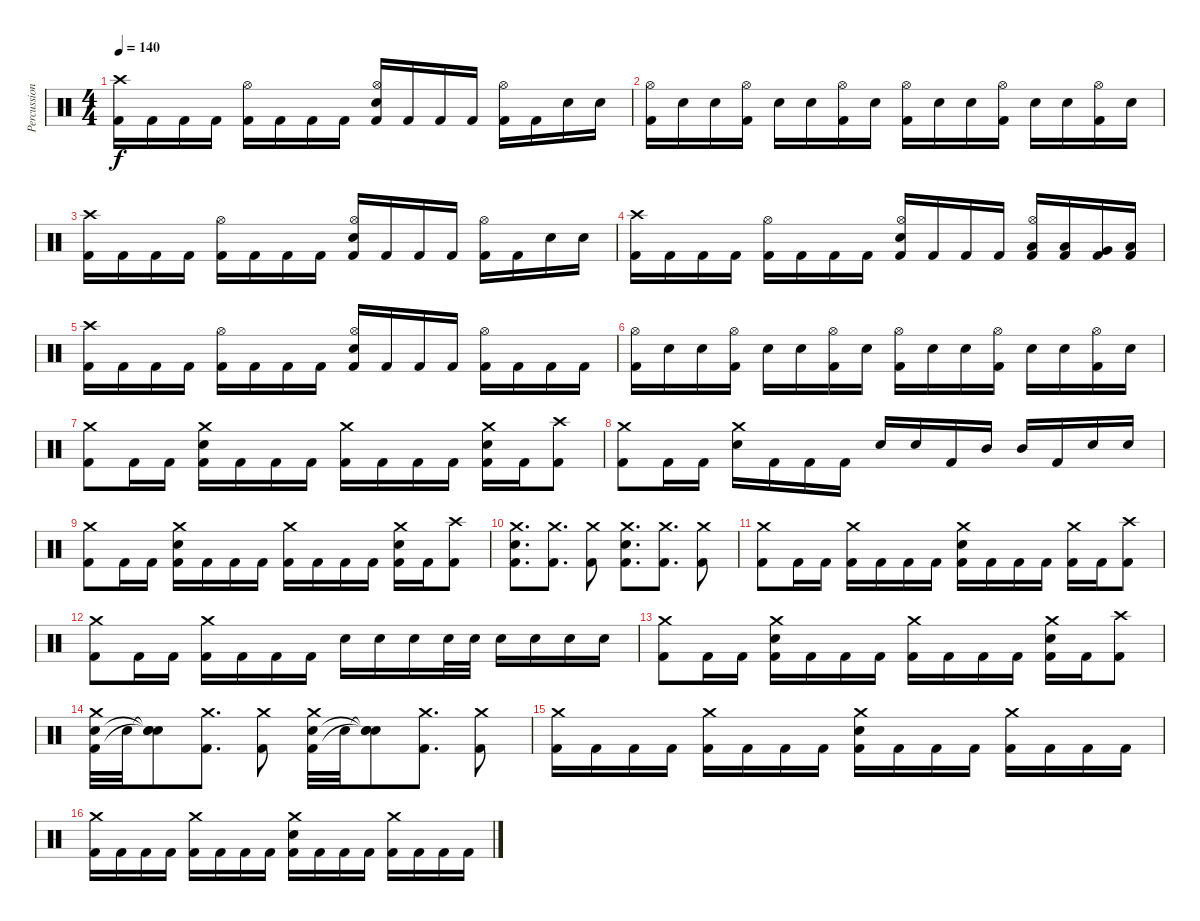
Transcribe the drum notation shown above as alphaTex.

\track ("Percussion" "Percussion") {instrument percussion}
\staff {score}
\articulation defaults
\ts (4 4)
\tempo 140
\clef neutral
\ks c
("Crash high (hit)" "Kick (hit) 2").16{dy f} "Kick (hit) 2".16 "Kick (hit) 2".16 "Kick (hit) 2".16 ("Hi-Hat (open)" "Kick (hit) 2").16 "Kick (hit) 2".16 "Kick (hit) 2".16 "Kick (hit) 2".16 ("Hi-Hat (open)" "Electric Snare (hit)" "Kick (hit) 2").16 "Kick (hit) 2".16 "Kick (hit) 2".16 "Kick (hit) 2".16 ("Hi-Hat (open)" "Kick (hit) 2").16 "Kick (hit) 2".16 "Electric Snare (hit)".16 "Electric Snare (hit)".16 |
("Hi-Hat (open)" "Kick (hit) 2").16 "Electric Snare (hit)".16 "Electric Snare (hit)".16 ("Hi-Hat (open)" "Kick (hit) 2").16 "Electric Snare (hit)".16 "Electric Snare (hit)".16 ("Hi-Hat (open)" "Kick (hit) 2").16 "Electric Snare (hit)".16 ("Hi-Hat (open)" "Kick (hit) 2").16 "Electric Snare (hit)".16 "Electric Snare (hit)".16 ("Hi-Hat (open)" "Kick (hit) 2").16 "Electric Snare (hit)".16 "Electric Snare (hit)".16 ("Hi-Hat (open)" "Kick (hit) 2").16 "Electric Snare (hit)".16 |
("Crash high (hit)" "Kick (hit) 2").16 "Kick (hit) 2".16 "Kick (hit) 2".16 "Kick (hit) 2".16 ("Hi-Hat (open)" "Kick (hit) 2").16 "Kick (hit) 2".16 "Kick (hit) 2".16 "Kick (hit) 2".16 ("Hi-Hat (open)" "Electric Snare (hit)" "Kick (hit) 2").16 "Kick (hit) 2".16 "Kick (hit) 2".16 "Kick (hit) 2".16 ("Hi-Hat (open)" "Kick (hit) 2").16 "Kick (hit) 2".16 "Electric Snare (hit)".16 "Electric Snare (hit)".16 |
("Crash high (hit)" "Kick (hit) 2").16 "Kick (hit) 2".16 "Kick (hit) 2".16 "Kick (hit) 2".16 ("Hi-Hat (open)" "Kick (hit) 2").16 "Kick (hit) 2".16 "Kick (hit) 2".16 "Kick (hit) 2".16 ("Hi-Hat (open)" "Electric Snare (hit)" "Kick (hit) 2").16 "Kick (hit) 2".16 "Kick (hit) 2".16 "Kick (hit) 2".16 ("Hi-Hat (open)" "Low Tom (hit)" "Kick (hit) 2").16 ("Low Tom (hit)" "Kick (hit) 2").16 ("Very Low Tom (hit)" "Kick (hit) 2").16 ("Low Floor Tom (hit)" "Kick (hit) 2").16 |
("Crash high (hit)" "Kick (hit) 2").16 "Kick (hit) 2".16 "Kick (hit) 2".16 "Kick (hit) 2".16 ("Hi-Hat (open)" "Kick (hit) 2").16 "Kick (hit) 2".16 "Kick (hit) 2".16 "Kick (hit) 2".16 ("Hi-Hat (open)" "Electric Snare (hit)" "Kick (hit) 2").16 "Kick (hit) 2".16 "Kick (hit) 2".16 "Kick (hit) 2".16 ("Hi-Hat (open)" "Kick (hit) 2").16 "Kick (hit) 2".16 "Kick (hit) 2".16 "Kick (hit) 2".16 |
("Hi-Hat (open)" "Kick (hit) 2").16 "Electric Snare (hit)".16 "Electric Snare (hit)".16 ("Hi-Hat (open)" "Kick (hit) 2").16 "Electric Snare (hit)".16 "Electric Snare (hit)".16 ("Hi-Hat (open)" "Kick (hit) 2").16 "Electric Snare (hit)".16 ("Hi-Hat (open)" "Kick (hit) 2").16 "Electric Snare (hit)".16 "Electric Snare (hit)".16 ("Hi-Hat (open)" "Kick (hit) 2").16 "Electric Snare (hit)".16 "Electric Snare (hit)".16 ("Hi-Hat (open)" "Kick (hit) 2").16 "Electric Snare (hit)".16 |
("Crash medium (hit)" "Kick (hit) 2").8 "Kick (hit) 2".16 "Kick (hit) 2".16 ("Crash medium (hit)" "Electric Snare (hit)" "Kick (hit) 2").16 "Kick (hit) 2".16 "Kick (hit) 2".16 "Kick (hit) 2".16 ("Crash medium (hit)" "Kick (hit) 2").16 "Kick (hit) 2".16 "Kick (hit) 2".16 "Kick (hit) 2".16 ("Crash medium (hit)" "Electric Snare (hit)" "Kick (hit) 2").16 "Kick (hit) 2".16 ("Crash high (hit)" "Kick (hit) 2").8 |
("Crash medium (hit)" "Kick (hit) 2").8 "Kick (hit) 2".16 "Kick (hit) 2".16 ("Crash medium (hit)" "Electric Snare (hit)").16 "Kick (hit) 2".16 "Kick (hit) 2".16 "Kick (hit) 2".16 "Electric Snare (hit)".16 "Electric Snare (hit)".16 "Kick (hit) 2".16 "Mid Tom (hit)".16 "Mid Tom (hit)".16 "Kick (hit) 2".16 "Electric Snare (hit)".16 "Electric Snare (hit)".16 |
("Crash medium (hit)" "Kick (hit) 2").8 "Kick (hit) 2".16 "Kick (hit) 2".16 ("Crash medium (hit)" "Electric Snare (hit)" "Kick (hit) 2").16 "Kick (hit) 2".16 "Kick (hit) 2".16 "Kick (hit) 2".16 ("Crash medium (hit)" "Kick (hit) 2").16 "Kick (hit) 2".16 "Kick (hit) 2".16 "Kick (hit) 2".16 ("Crash medium (hit)" "Electric Snare (hit)" "Kick (hit) 2").16 "Kick (hit) 2".16 ("Crash high (hit)" "Kick (hit) 2").8 |
("Crash medium (hit)" "Electric Snare (hit)" "Kick (hit) 2").8{d} ("Crash medium (hit)" "Kick (hit) 2").8{d} ("Crash medium (hit)" "Kick (hit) 2").8 ("Crash medium (hit)" "Electric Snare (hit)" "Kick (hit) 2").8{d} ("Crash medium (hit)" "Kick (hit) 2").8{d} ("Crash medium (hit)" "Kick (hit) 2").8 |
("Crash medium (hit)" "Kick (hit) 2").8 "Kick (hit) 2".16 "Kick (hit) 2".16 ("Crash medium (hit)" "Kick (hit) 2").16 "Kick (hit) 2".16 "Kick (hit) 2".16 "Kick (hit) 2".16 ("Crash medium (hit)" "Electric Snare (hit)" "Kick (hit) 2").16 "Kick (hit) 2".16 "Kick (hit) 2".16 "Kick (hit) 2".16 ("Crash medium (hit)" "Kick (hit) 2").16 "Kick (hit) 2".16 ("Crash high (hit)" "Kick (hit) 2").8 |
("Crash medium (hit)" "Kick (hit) 2").8 "Kick (hit) 2".16 "Kick (hit) 2".16 ("Crash medium (hit)" "Kick (hit) 2").16 "Kick (hit) 2".16 "Kick (hit) 2".16 "Kick (hit) 2".16 "Electric Snare (hit)".16 "Electric Snare (hit)".16 "Electric Snare (hit)".16 "Electric Snare (hit)".32 "Electric Snare (hit)".32 "Electric Snare (hit)".16 "Electric Snare (hit)".16 "Electric Snare (hit)".16 "Electric Snare (hit)".16 |
("Crash medium (hit)" "Kick (hit) 2").8 "Kick (hit) 2".16 "Kick (hit) 2".16 ("Crash medium (hit)" "Electric Snare (hit)" "Kick (hit) 2").16 "Kick (hit) 2".16 "Kick (hit) 2".16 "Kick (hit) 2".16 ("Crash medium (hit)" "Kick (hit) 2").16 "Kick (hit) 2".16 "Kick (hit) 2".16 "Kick (hit) 2".16 ("Crash medium (hit)" "Electric Snare (hit)" "Kick (hit) 2").16 "Kick (hit) 2".16 ("Crash high (hit)" "Kick (hit) 2").8 |
("Crash medium (hit)" "Electric Snare (hit)" "Kick (hit) 2").32 "Electric Snare (hit)".32 ("Snare (hit)"{t} "Snare (hit)"{t} "Snare (hit)"{t}).8 ("Crash medium (hit)" "Kick (hit) 2").8{d} ("Crash medium (hit)" "Kick (hit) 2").8 ("Crash medium (hit)" "Electric Snare (hit)" "Kick (hit) 2").32 "Electric Snare (hit)".32 ("Snare (hit)"{t} "Snare (hit)"{t} "Snare (hit)"{t}).8 ("Crash medium (hit)" "Kick (hit) 2").8{d} ("Crash medium (hit)" "Kick (hit) 2").8 |
("Crash medium (hit)" "Kick (hit) 2").16 "Kick (hit) 2".16 "Kick (hit) 2".16 "Kick (hit) 2".16 ("Crash medium (hit)" "Kick (hit) 2").16 "Kick (hit) 2".16 "Kick (hit) 2".16 "Kick (hit) 2".16 ("Crash medium (hit)" "Electric Snare (hit)" "Kick (hit) 2").16 "Kick (hit) 2".16 "Kick (hit) 2".16 "Kick (hit) 2".16 ("Crash medium (hit)" "Kick (hit) 2").16 "Kick (hit) 2".16 "Kick (hit) 2".16 "Kick (hit) 2".16 |
("Crash medium (hit)" "Kick (hit) 2").16 "Kick (hit) 2".16 "Kick (hit) 2".16 "Kick (hit) 2".16 ("Crash medium (hit)" "Kick (hit) 2").16 "Kick (hit) 2".16 "Kick (hit) 2".16 "Kick (hit) 2".16 ("Crash medium (hit)" "Electric Snare (hit)" "Kick (hit) 2").16 "Kick (hit) 2".16 "Kick (hit) 2".16 "Kick (hit) 2".16 ("Crash medium (hit)" "Kick (hit) 2").16 "Kick (hit) 2".16 "Kick (hit) 2".16 "Kick (hit) 2".16
